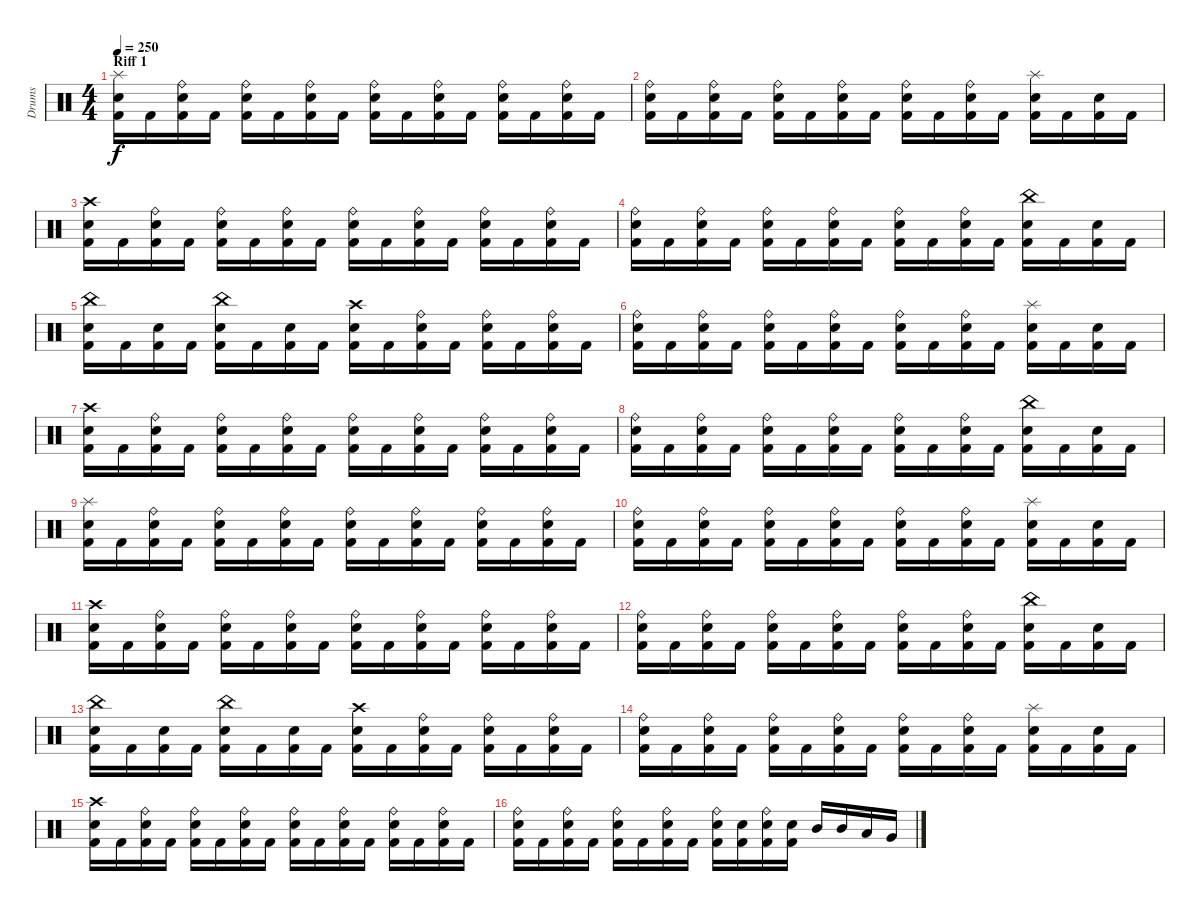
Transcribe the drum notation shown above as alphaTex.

\track ("Drums" "Drums") {instrument percussion}
\staff {score}
\articulation defaults
\ts (4 4)
\section ("" "Riff 1")
\tempo 250
\clef neutral
\ks c
("Kick (hit) 2" "Snare (hit) 2" "Splash (hit)").16{dy f} "Kick (hit) 2".16 ("Kick (hit) 2" "Snare (hit) 2" "Ride (bell)").16 "Kick (hit) 2".16 ("Kick (hit) 2" "Snare (hit) 2" "Ride (bell)").16 "Kick (hit) 2".16 ("Kick (hit) 2" "Snare (hit) 2" "Ride (bell)").16 "Kick (hit) 2".16 ("Kick (hit) 2" "Snare (hit) 2" "Ride (bell)").16 "Kick (hit) 2".16 ("Kick (hit) 2" "Snare (hit) 2" "Ride (bell)").16 "Kick (hit) 2".16 ("Kick (hit) 2" "Snare (hit) 2" "Ride (bell)").16 "Kick (hit) 2".16 ("Kick (hit) 2" "Snare (hit) 2" "Ride (bell)").16 "Kick (hit) 2".16 |
("Kick (hit) 2" "Snare (hit) 2" "Ride (bell)").16 "Kick (hit) 2".16 ("Kick (hit) 2" "Snare (hit) 2" "Ride (bell)").16 "Kick (hit) 2".16 ("Kick (hit) 2" "Snare (hit) 2" "Ride (bell)").16 "Kick (hit) 2".16 ("Kick (hit) 2" "Snare (hit) 2" "Ride (bell)").16 "Kick (hit) 2".16 ("Kick (hit) 2" "Snare (hit) 2" "Ride (bell)").16 "Kick (hit) 2".16 ("Kick (hit) 2" "Snare (hit) 2" "Ride (bell)").16 "Kick (hit) 2".16 ("Kick (hit) 2" "Snare (hit) 2" "Splash (hit)").16 "Kick (hit) 2".16 ("Kick (hit) 2" "Snare (hit) 2").16 "Kick (hit) 2".16 |
("Kick (hit) 2" "Snare (hit) 2" "Crash high (hit)").16 "Kick (hit) 2".16 ("Kick (hit) 2" "Snare (hit) 2" "Ride (bell)").16 "Kick (hit) 2".16 ("Kick (hit) 2" "Snare (hit) 2" "Ride (bell)").16 "Kick (hit) 2".16 ("Kick (hit) 2" "Snare (hit) 2" "Ride (bell)").16 "Kick (hit) 2".16 ("Kick (hit) 2" "Snare (hit) 2" "Ride (bell)").16 "Kick (hit) 2".16 ("Kick (hit) 2" "Snare (hit) 2" "Ride (bell)").16 "Kick (hit) 2".16 ("Kick (hit) 2" "Snare (hit) 2" "Ride (bell)").16 "Kick (hit) 2".16 ("Kick (hit) 2" "Snare (hit) 2" "Ride (bell)").16 "Kick (hit) 2".16 |
("Kick (hit) 2" "Snare (hit) 2" "Ride (bell)").16 "Kick (hit) 2".16 ("Kick (hit) 2" "Snare (hit) 2" "Ride (bell)").16 "Kick (hit) 2".16 ("Kick (hit) 2" "Snare (hit) 2" "Ride (bell)").16 "Kick (hit) 2".16 ("Kick (hit) 2" "Snare (hit) 2" "Ride (bell)").16 "Kick (hit) 2".16 ("Kick (hit) 2" "Snare (hit) 2" "Ride (bell)").16 "Kick (hit) 2".16 ("Kick (hit) 2" "Snare (hit) 2" "Ride (bell)").16 "Kick (hit) 2".16 ("Kick (hit) 2" "Snare (hit) 2" "China (hit)").16 "Kick (hit) 2".16 ("Kick (hit) 2" "Snare (hit) 2").16 "Kick (hit) 2".16 |
("Kick (hit) 2" "Snare (hit) 2" "China (hit)").16 "Kick (hit) 2".16 ("Kick (hit) 2" "Snare (hit) 2").16 "Kick (hit) 2".16 ("Kick (hit) 2" "Snare (hit) 2" "China (hit)").16 "Kick (hit) 2".16 ("Kick (hit) 2" "Snare (hit) 2").16 "Kick (hit) 2".16 ("Kick (hit) 2" "Snare (hit) 2" "Crash high (hit)").16 "Kick (hit) 2".16 ("Kick (hit) 2" "Snare (hit) 2" "Ride (bell)").16 "Kick (hit) 2".16 ("Kick (hit) 2" "Snare (hit) 2" "Ride (bell)").16 "Kick (hit) 2".16 ("Kick (hit) 2" "Snare (hit) 2" "Ride (bell)").16 "Kick (hit) 2".16 |
("Kick (hit) 2" "Snare (hit) 2" "Ride (bell)").16 "Kick (hit) 2".16 ("Kick (hit) 2" "Snare (hit) 2" "Ride (bell)").16 "Kick (hit) 2".16 ("Kick (hit) 2" "Snare (hit) 2" "Ride (bell)").16 "Kick (hit) 2".16 ("Kick (hit) 2" "Snare (hit) 2" "Ride (bell)").16 "Kick (hit) 2".16 ("Kick (hit) 2" "Snare (hit) 2" "Ride (bell)").16 "Kick (hit) 2".16 ("Kick (hit) 2" "Snare (hit) 2" "Ride (bell)").16 "Kick (hit) 2".16 ("Kick (hit) 2" "Snare (hit) 2" "Splash (hit)").16 "Kick (hit) 2".16 ("Kick (hit) 2" "Snare (hit) 2").16 "Kick (hit) 2".16 |
("Kick (hit) 2" "Snare (hit) 2" "Crash high (hit)").16 "Kick (hit) 2".16 ("Kick (hit) 2" "Snare (hit) 2" "Ride (bell)").16 "Kick (hit) 2".16 ("Kick (hit) 2" "Snare (hit) 2" "Ride (bell)").16 "Kick (hit) 2".16 ("Kick (hit) 2" "Snare (hit) 2" "Ride (bell)").16 "Kick (hit) 2".16 ("Kick (hit) 2" "Snare (hit) 2" "Ride (bell)").16 "Kick (hit) 2".16 ("Kick (hit) 2" "Snare (hit) 2" "Ride (bell)").16 "Kick (hit) 2".16 ("Kick (hit) 2" "Snare (hit) 2" "Ride (bell)").16 "Kick (hit) 2".16 ("Kick (hit) 2" "Snare (hit) 2" "Ride (bell)").16 "Kick (hit) 2".16 |
("Kick (hit) 2" "Snare (hit) 2" "Ride (bell)").16 "Kick (hit) 2".16 ("Kick (hit) 2" "Snare (hit) 2" "Ride (bell)").16 "Kick (hit) 2".16 ("Kick (hit) 2" "Snare (hit) 2" "Ride (bell)").16 "Kick (hit) 2".16 ("Kick (hit) 2" "Snare (hit) 2" "Ride (bell)").16 "Kick (hit) 2".16 ("Kick (hit) 2" "Snare (hit) 2" "Ride (bell)").16 "Kick (hit) 2".16 ("Kick (hit) 2" "Snare (hit) 2" "Ride (bell)").16 "Kick (hit) 2".16 ("Kick (hit) 2" "Snare (hit) 2" "China (hit)").16 "Kick (hit) 2".16 ("Kick (hit) 2" "Snare (hit) 2").16 "Kick (hit) 2".16 |
("Kick (hit) 2" "Snare (hit) 2" "Splash (hit)").16 "Kick (hit) 2".16 ("Kick (hit) 2" "Snare (hit) 2" "Ride (bell)").16 "Kick (hit) 2".16 ("Kick (hit) 2" "Snare (hit) 2" "Ride (bell)").16 "Kick (hit) 2".16 ("Kick (hit) 2" "Snare (hit) 2" "Ride (bell)").16 "Kick (hit) 2".16 ("Kick (hit) 2" "Snare (hit) 2" "Ride (bell)").16 "Kick (hit) 2".16 ("Kick (hit) 2" "Snare (hit) 2" "Ride (bell)").16 "Kick (hit) 2".16 ("Kick (hit) 2" "Snare (hit) 2" "Ride (bell)").16 "Kick (hit) 2".16 ("Kick (hit) 2" "Snare (hit) 2" "Ride (bell)").16 "Kick (hit) 2".16 |
("Kick (hit) 2" "Snare (hit) 2" "Ride (bell)").16 "Kick (hit) 2".16 ("Kick (hit) 2" "Snare (hit) 2" "Ride (bell)").16 "Kick (hit) 2".16 ("Kick (hit) 2" "Snare (hit) 2" "Ride (bell)").16 "Kick (hit) 2".16 ("Kick (hit) 2" "Snare (hit) 2" "Ride (bell)").16 "Kick (hit) 2".16 ("Kick (hit) 2" "Snare (hit) 2" "Ride (bell)").16 "Kick (hit) 2".16 ("Kick (hit) 2" "Snare (hit) 2" "Ride (bell)").16 "Kick (hit) 2".16 ("Kick (hit) 2" "Snare (hit) 2" "Splash (hit)").16 "Kick (hit) 2".16 ("Kick (hit) 2" "Snare (hit) 2").16 "Kick (hit) 2".16 |
("Kick (hit) 2" "Snare (hit) 2" "Crash high (hit)").16 "Kick (hit) 2".16 ("Kick (hit) 2" "Snare (hit) 2" "Ride (bell)").16 "Kick (hit) 2".16 ("Kick (hit) 2" "Snare (hit) 2" "Ride (bell)").16 "Kick (hit) 2".16 ("Kick (hit) 2" "Snare (hit) 2" "Ride (bell)").16 "Kick (hit) 2".16 ("Kick (hit) 2" "Snare (hit) 2" "Ride (bell)").16 "Kick (hit) 2".16 ("Kick (hit) 2" "Snare (hit) 2" "Ride (bell)").16 "Kick (hit) 2".16 ("Kick (hit) 2" "Snare (hit) 2" "Ride (bell)").16 "Kick (hit) 2".16 ("Kick (hit) 2" "Snare (hit) 2" "Ride (bell)").16 "Kick (hit) 2".16 |
("Kick (hit) 2" "Snare (hit) 2" "Ride (bell)").16 "Kick (hit) 2".16 ("Kick (hit) 2" "Snare (hit) 2" "Ride (bell)").16 "Kick (hit) 2".16 ("Kick (hit) 2" "Snare (hit) 2" "Ride (bell)").16 "Kick (hit) 2".16 ("Kick (hit) 2" "Snare (hit) 2" "Ride (bell)").16 "Kick (hit) 2".16 ("Kick (hit) 2" "Snare (hit) 2" "Ride (bell)").16 "Kick (hit) 2".16 ("Kick (hit) 2" "Snare (hit) 2" "Ride (bell)").16 "Kick (hit) 2".16 ("Kick (hit) 2" "Snare (hit) 2" "China (hit)").16 "Kick (hit) 2".16 ("Kick (hit) 2" "Snare (hit) 2").16 "Kick (hit) 2".16 |
("Kick (hit) 2" "Snare (hit) 2" "China (hit)").16 "Kick (hit) 2".16 ("Kick (hit) 2" "Snare (hit) 2").16 "Kick (hit) 2".16 ("Kick (hit) 2" "Snare (hit) 2" "China (hit)").16 "Kick (hit) 2".16 ("Kick (hit) 2" "Snare (hit) 2").16 "Kick (hit) 2".16 ("Kick (hit) 2" "Snare (hit) 2" "Crash high (hit)").16 "Kick (hit) 2".16 ("Kick (hit) 2" "Snare (hit) 2" "Ride (bell)").16 "Kick (hit) 2".16 ("Kick (hit) 2" "Snare (hit) 2" "Ride (bell)").16 "Kick (hit) 2".16 ("Kick (hit) 2" "Snare (hit) 2" "Ride (bell)").16 "Kick (hit) 2".16 |
("Kick (hit) 2" "Snare (hit) 2" "Ride (bell)").16 "Kick (hit) 2".16 ("Kick (hit) 2" "Snare (hit) 2" "Ride (bell)").16 "Kick (hit) 2".16 ("Kick (hit) 2" "Snare (hit) 2" "Ride (bell)").16 "Kick (hit) 2".16 ("Kick (hit) 2" "Snare (hit) 2" "Ride (bell)").16 "Kick (hit) 2".16 ("Kick (hit) 2" "Snare (hit) 2" "Ride (bell)").16 "Kick (hit) 2".16 ("Kick (hit) 2" "Snare (hit) 2" "Ride (bell)").16 "Kick (hit) 2".16 ("Kick (hit) 2" "Snare (hit) 2" "Splash (hit)").16 "Kick (hit) 2".16 ("Kick (hit) 2" "Snare (hit) 2").16 "Kick (hit) 2".16 |
("Kick (hit) 2" "Snare (hit) 2" "Crash high (hit)").16 "Kick (hit) 2".16 ("Kick (hit) 2" "Snare (hit) 2" "Ride (bell)").16 "Kick (hit) 2".16 ("Kick (hit) 2" "Snare (hit) 2" "Ride (bell)").16 "Kick (hit) 2".16 ("Kick (hit) 2" "Snare (hit) 2" "Ride (bell)").16 "Kick (hit) 2".16 ("Kick (hit) 2" "Snare (hit) 2" "Ride (bell)").16 "Kick (hit) 2".16 ("Kick (hit) 2" "Snare (hit) 2" "Ride (bell)").16 "Kick (hit) 2".16 ("Kick (hit) 2" "Snare (hit) 2" "Ride (bell)").16 "Kick (hit) 2".16 ("Kick (hit) 2" "Snare (hit) 2" "Ride (bell)").16 "Kick (hit) 2".16 |
("Kick (hit) 2" "Snare (hit) 2" "Ride (bell)").16 "Kick (hit) 2".16 ("Kick (hit) 2" "Snare (hit) 2" "Ride (bell)").16 "Kick (hit) 2".16 ("Kick (hit) 2" "Snare (hit) 2" "Ride (bell)").16 "Kick (hit) 2".16 ("Kick (hit) 2" "Snare (hit) 2" "Ride (bell)").16 "Kick (hit) 2".16 ("Kick (hit) 2" "Snare (hit) 2" "Ride (bell)").16 ("Kick (hit) 2" "Snare (hit) 2").16 ("Kick (hit) 2" "Snare (hit) 2" "Ride (bell)").16 ("Kick (hit) 2" "Snare (hit) 2").16 "Mid Tom (hit)".16 "Mid Tom (hit)".16 "Low Tom (hit)".16 "Very Low Tom (hit)".16
